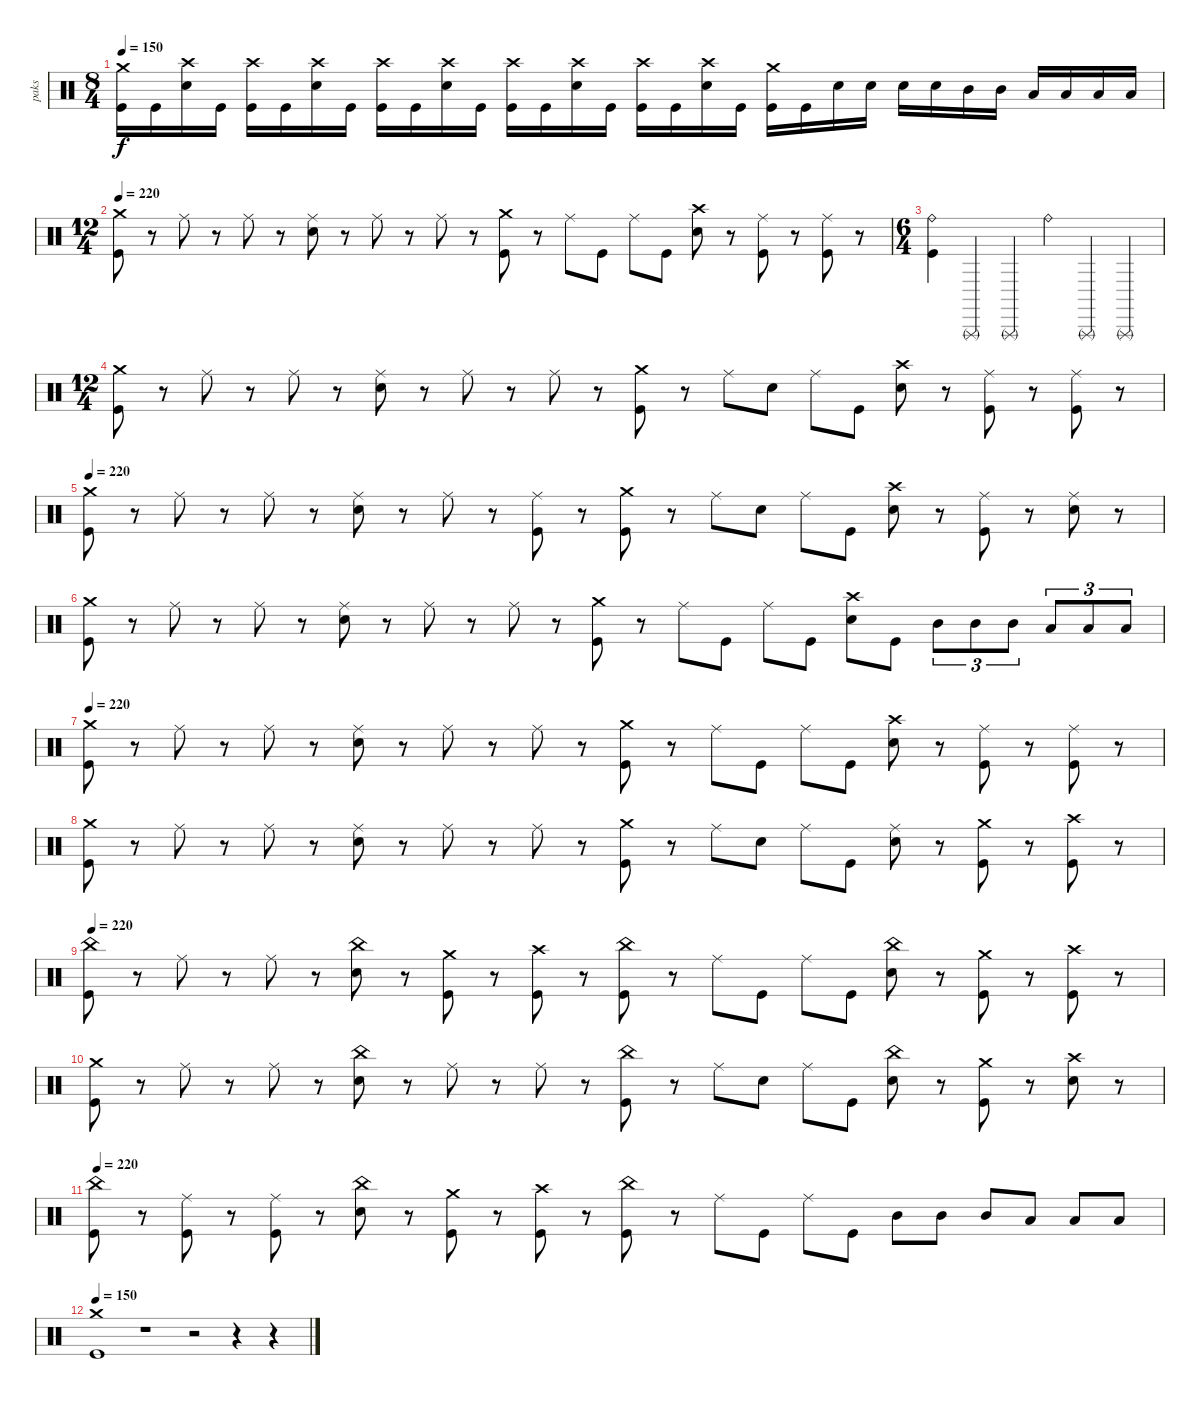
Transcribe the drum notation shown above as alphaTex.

\track ("paks" "paks") {instrument percussion}
\staff {score}
\articulation defaults
\ts (8 4)
\tempo 150
\clef neutral
\ks c
("Crash medium (hit)" "Kick (hit)").16{dy f} "Kick (hit)".16 ("Crash high (hit)" "Electric Snare (hit)").16 "Kick (hit)".16 ("Crash high (hit)" "Kick (hit)").16 "Kick (hit)".16 ("Crash high (hit)" "Electric Snare (hit)").16 "Kick (hit)".16 ("Crash high (hit)" "Kick (hit)").16 "Kick (hit)".16 ("Crash high (hit)" "Electric Snare (hit)").16 "Kick (hit)".16 ("Crash high (hit)" "Kick (hit)").16 "Kick (hit)".16 ("Crash high (hit)" "Electric Snare (hit)").16 "Kick (hit)".16 ("Crash high (hit)" "Kick (hit)").16 "Kick (hit)".16 ("Crash high (hit)" "Electric Snare (hit)").16 "Kick (hit)".16 ("Crash medium (hit)" "Kick (hit)").16 "Kick (hit)".16 "Electric Snare (hit)".16 "Electric Snare (hit)".16 "Electric Snare (hit)".16 "Electric Snare (hit)".16 "Mid Tom (hit)".16 "Mid Tom (hit)".16 "Low Tom (hit)".16 "Low Tom (hit)".16 "Low Floor Tom (hit)".16 "Low Floor Tom (hit)".16 |
\ts (12 4)
\tempo 220
("Crash medium (hit)" "Kick (hit)").8 r.8 "Ride (middle)".8 r.8 "Ride (middle)".8 r.8 ("Ride (middle)" "Electric Snare (hit)").8 r.8 "Ride (middle)".8 r.8 "Ride (middle)".8 r.8 ("Crash medium (hit)" "Kick (hit)").8 r.8 "Ride (middle)".8 "Kick (hit)".8 "Ride (middle)".8 "Kick (hit)".8 ("Crash high (hit)" "Electric Snare (hit)").8 r.8 ("Ride (middle)" "Kick (hit)").8 r.8 ("Ride (middle)" "Kick (hit)").8 r.8 |
\ts (6 4)
("Ride (bell)" "Kick (hit)").4 "Triangle (rnute)".4 "Triangle (rnute)".4 "Ride (bell)".4 "Triangle (rnute)".4 "Triangle (rnute)".4 |
\ts (12 4)
("Crash medium (hit)" "Kick (hit)").8 r.8 "Ride (middle)".8 r.8 "Ride (middle)".8 r.8 ("Ride (middle)" "Electric Snare (hit)").8 r.8 "Ride (middle)".8 r.8 "Ride (middle)".8 r.8 ("Crash medium (hit)" "Kick (hit)").8 r.8 "Ride (middle)".8 "Electric Snare (hit)".8 "Ride (middle)".8 "Kick (hit)".8 ("Crash high (hit)" "Electric Snare (hit)").8 r.8 ("Ride (middle)" "Kick (hit)").8 r.8 ("Ride (middle)" "Kick (hit)").8 r.8 |
\tempo 220
("Crash medium (hit)" "Kick (hit)").8 r.8 "Ride (middle)".8 r.8 "Ride (middle)".8 r.8 ("Ride (middle)" "Electric Snare (hit)").8 r.8 "Ride (middle)".8 r.8 ("Ride (middle)" "Kick (hit)").8 r.8 ("Crash medium (hit)" "Kick (hit)").8 r.8 "Ride (middle)".8 "Electric Snare (hit)".8 "Ride (middle)".8 "Kick (hit)".8 ("Crash high (hit)" "Electric Snare (hit)").8 r.8 ("Ride (middle)" "Kick (hit)").8 r.8 ("Ride (middle)" "Electric Snare (hit)").8 r.8 |
("Crash medium (hit)" "Kick (hit)").8 r.8 "Ride (middle)".8 r.8 "Ride (middle)".8 r.8 ("Ride (middle)" "Electric Snare (hit)").8 r.8 "Ride (middle)".8 r.8 "Ride (middle)".8 r.8 ("Crash medium (hit)" "Kick (hit)").8 r.8 "Ride (middle)".8 "Kick (hit)".8 "Ride (middle)".8 "Kick (hit)".8 ("Crash high (hit)" "Electric Snare (hit)").8 "Kick (hit)".8 "Mid Tom (hit)".8{tu (3 2)} "Mid Tom (hit)".8{tu (3 2)} "Mid Tom (hit)".8{tu (3 2)} "Low Floor Tom (hit)".8{tu (3 2)} "Low Floor Tom (hit)".8{tu (3 2)} "Low Floor Tom (hit)".8{tu (3 2)} |
\tempo 220
("Crash medium (hit)" "Kick (hit)").8 r.8 "Ride (middle)".8 r.8 "Ride (middle)".8 r.8 ("Ride (middle)" "Electric Snare (hit)").8 r.8 "Ride (middle)".8 r.8 "Ride (middle)".8 r.8 ("Crash medium (hit)" "Kick (hit)").8 r.8 "Ride (middle)".8 "Kick (hit)".8 "Ride (middle)".8 "Kick (hit)".8 ("Crash high (hit)" "Electric Snare (hit)").8 r.8 ("Ride (middle)" "Kick (hit)").8 r.8 ("Ride (middle)" "Kick (hit)").8 r.8 |
("Crash medium (hit)" "Kick (hit)").8 r.8 "Ride (middle)".8 r.8 "Ride (middle)".8 r.8 ("Ride (middle)" "Electric Snare (hit)").8 r.8 "Ride (middle)".8 r.8 "Ride (middle)".8 r.8 ("Crash medium (hit)" "Kick (hit)").8 r.8 "Ride (middle)".8 "Electric Snare (hit)".8 "Ride (middle)".8 "Kick (hit)".8 ("Ride (middle)" "Electric Snare (hit)").8 r.8 ("Crash medium (hit)" "Kick (hit)").8 r.8 ("Crash high (hit)" "Kick (hit)").8 r.8 |
\tempo 220
("China (hit)" "Kick (hit)").8 r.8 "Ride (middle)".8 r.8 "Ride (middle)".8 r.8 ("China (hit)" "Electric Snare (hit)").8 r.8 ("Crash medium (hit)" "Kick (hit)").8 r.8 ("Crash high (hit)" "Kick (hit)").8 r.8 ("China (hit)" "Kick (hit)").8 r.8 "Ride (middle)".8 "Kick (hit)".8 "Ride (middle)".8 "Kick (hit)".8 ("China (hit)" "Electric Snare (hit)").8 r.8 ("Crash medium (hit)" "Kick (hit)").8 r.8 ("Crash high (hit)" "Kick (hit)").8 r.8 |
("Crash medium (hit)" "Kick (hit)").8 r.8 "Ride (middle)".8 r.8 "Ride (middle)".8 r.8 ("China (hit)" "Electric Snare (hit)").8 r.8 "Ride (middle)".8 r.8 "Ride (middle)".8 r.8 ("China (hit)" "Kick (hit)").8 r.8 "Ride (middle)".8 "Electric Snare (hit)".8 "Ride (middle)".8 "Kick (hit)".8 ("China (hit)" "Electric Snare (hit)").8 r.8 ("Crash medium (hit)" "Kick (hit)").8 r.8 ("Crash high (hit)" "Electric Snare (hit)").8 r.8 |
\tempo 220
("China (hit)" "Kick (hit)").8 r.8 ("Ride (middle)" "Kick (hit)").8 r.8 ("Ride (middle)" "Kick (hit)").8 r.8 ("China (hit)" "Electric Snare (hit)").8 r.8 ("Crash medium (hit)" "Kick (hit)").8 r.8 ("Crash high (hit)" "Kick (hit)").8 r.8 ("China (hit)" "Kick (hit)").8 r.8 "Ride (middle)".8 "Kick (hit)".8 "Ride (middle)".8 "Kick (hit)".8 "Mid Tom (hit)".8 "Mid Tom (hit)".8 "Mid Tom (hit)".8 "Low Floor Tom (hit)".8 "Low Floor Tom (hit)".8 "Low Floor Tom (hit)".8 |
\tempo 150
("Crash medium (hit)" "Kick (hit)").1 r.1 r.2 r.4 r.4
